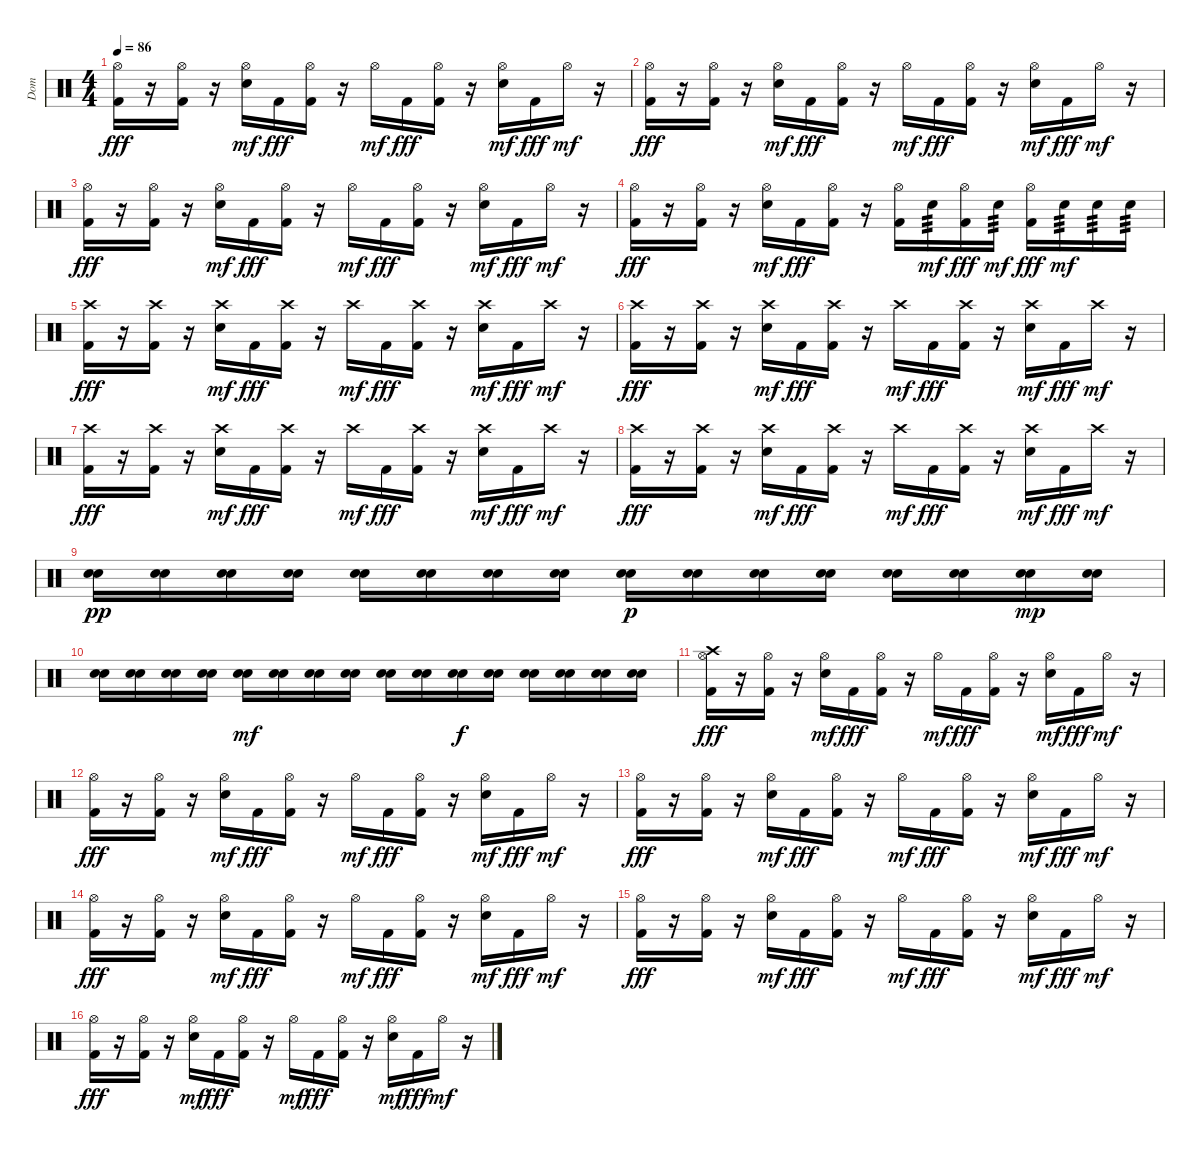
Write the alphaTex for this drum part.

\track ("Dom" "Dom") {instrument percussion}
\staff {score}
\articulation defaults
\ts (4 4)
\tempo 86
\clef neutral
\ks c
("Hi-Hat (open)" "Kick (hit) 2").16{dy fff} r.16 ("Hi-Hat (open)" "Kick (hit) 2").16 r.16 ("Hi-Hat (open)" "Electric Snare (hit)").16{dy mf} "Kick (hit) 2".16{dy fff} ("Hi-Hat (open)" "Kick (hit) 2").16 r.16 "Hi-Hat (open)".16{dy mf} "Kick (hit) 2".16{dy fff} ("Hi-Hat (open)" "Kick (hit) 2").16 r.16 ("Hi-Hat (open)" "Electric Snare (hit)").16{dy mf} "Kick (hit) 2".16{dy fff} "Hi-Hat (open)".16{dy mf} r.16 |
("Hi-Hat (open)" "Kick (hit) 2").16{dy fff} r.16 ("Hi-Hat (open)" "Kick (hit) 2").16 r.16 ("Hi-Hat (open)" "Electric Snare (hit)").16{dy mf} "Kick (hit) 2".16{dy fff} ("Hi-Hat (open)" "Kick (hit) 2").16 r.16 "Hi-Hat (open)".16{dy mf} "Kick (hit) 2".16{dy fff} ("Hi-Hat (open)" "Kick (hit) 2").16 r.16 ("Hi-Hat (open)" "Electric Snare (hit)").16{dy mf} "Kick (hit) 2".16{dy fff} "Hi-Hat (open)".16{dy mf} r.16 |
("Hi-Hat (open)" "Kick (hit) 2").16{dy fff} r.16 ("Hi-Hat (open)" "Kick (hit) 2").16 r.16 ("Hi-Hat (open)" "Electric Snare (hit)").16{dy mf} "Kick (hit) 2".16{dy fff} ("Hi-Hat (open)" "Kick (hit) 2").16 r.16 "Hi-Hat (open)".16{dy mf} "Kick (hit) 2".16{dy fff} ("Hi-Hat (open)" "Kick (hit) 2").16 r.16 ("Hi-Hat (open)" "Electric Snare (hit)").16{dy mf} "Kick (hit) 2".16{dy fff} "Hi-Hat (open)".16{dy mf} r.16 |
("Hi-Hat (open)" "Kick (hit) 2").16{dy fff} r.16 ("Hi-Hat (open)" "Kick (hit) 2").16 r.16 ("Hi-Hat (open)" "Electric Snare (hit)").16{dy mf} "Kick (hit) 2".16{dy fff} ("Hi-Hat (open)" "Kick (hit) 2").16 r.16 ("Hi-Hat (open)" "Kick (hit) 2").16 "Electric Snare (hit)".16{tp 3 dy mf} ("Hi-Hat (open)" "Kick (hit) 2").16{dy fff} "Electric Snare (hit)".16{tp 3 dy mf} ("Hi-Hat (open)" "Kick (hit) 2").16{dy fff} "Electric Snare (hit)".16{tp 3 dy mf} "Electric Snare (hit)".16{tp 3} "Electric Snare (hit)".16{tp 3} |
("Crash high (hit)" "Kick (hit) 2").16{dy fff} r.16 ("Crash high (hit)" "Kick (hit) 2").16 r.16 ("Crash high (hit)" "Electric Snare (hit)").16{dy mf} "Kick (hit) 2".16{dy fff} ("Crash high (hit)" "Kick (hit) 2").16 r.16 "Crash high (hit)".16{dy mf} "Kick (hit) 2".16{dy fff} ("Crash high (hit)" "Kick (hit) 2").16 r.16 ("Crash high (hit)" "Electric Snare (hit)").16{dy mf} "Kick (hit) 2".16{dy fff} "Crash high (hit)".16{dy mf} r.16 |
("Crash high (hit)" "Kick (hit) 2").16{dy fff} r.16 ("Crash high (hit)" "Kick (hit) 2").16 r.16 ("Crash high (hit)" "Electric Snare (hit)").16{dy mf} "Kick (hit) 2".16{dy fff} ("Crash high (hit)" "Kick (hit) 2").16 r.16 "Crash high (hit)".16{dy mf} "Kick (hit) 2".16{dy fff} ("Crash high (hit)" "Kick (hit) 2").16 r.16 ("Crash high (hit)" "Electric Snare (hit)").16{dy mf} "Kick (hit) 2".16{dy fff} "Crash high (hit)".16{dy mf} r.16 |
("Crash high (hit)" "Kick (hit) 2").16{dy fff} r.16 ("Crash high (hit)" "Kick (hit) 2").16 r.16 ("Crash high (hit)" "Electric Snare (hit)").16{dy mf} "Kick (hit) 2".16{dy fff} ("Crash high (hit)" "Kick (hit) 2").16 r.16 "Crash high (hit)".16{dy mf} "Kick (hit) 2".16{dy fff} ("Crash high (hit)" "Kick (hit) 2").16 r.16 ("Crash high (hit)" "Electric Snare (hit)").16{dy mf} "Kick (hit) 2".16{dy fff} "Crash high (hit)".16{dy mf} r.16 |
("Crash high (hit)" "Kick (hit) 2").16{dy fff} r.16 ("Crash high (hit)" "Kick (hit) 2").16 r.16 ("Crash high (hit)" "Electric Snare (hit)").16{dy mf} "Kick (hit) 2".16{dy fff} ("Crash high (hit)" "Kick (hit) 2").16 r.16 "Crash high (hit)".16{dy mf} "Kick (hit) 2".16{dy fff} ("Crash high (hit)" "Kick (hit) 2").16 r.16 ("Crash high (hit)" "Electric Snare (hit)").16{dy mf} "Kick (hit) 2".16{dy fff} "Crash high (hit)".16{dy mf} r.16 |
("Electric Snare (hit)" "Electric Snare (hit)").16{dy pp} ("Electric Snare (hit)" "Electric Snare (hit)").16 ("Electric Snare (hit)" "Electric Snare (hit)").16 ("Electric Snare (hit)" "Electric Snare (hit)").16 ("Electric Snare (hit)" "Electric Snare (hit)").16 ("Electric Snare (hit)" "Electric Snare (hit)").16 ("Electric Snare (hit)" "Electric Snare (hit)").16 ("Electric Snare (hit)" "Electric Snare (hit)").16 ("Electric Snare (hit)" "Electric Snare (hit)").16{dy p} ("Electric Snare (hit)" "Electric Snare (hit)").16 ("Electric Snare (hit)" "Electric Snare (hit)").16 ("Electric Snare (hit)" "Electric Snare (hit)").16 ("Electric Snare (hit)" "Electric Snare (hit)").16 ("Electric Snare (hit)" "Electric Snare (hit)").16 ("Electric Snare (hit)" "Electric Snare (hit)").16{dy mp} ("Electric Snare (hit)" "Electric Snare (hit)").16 |
("Electric Snare (hit)" "Electric Snare (hit)").16 ("Electric Snare (hit)" "Electric Snare (hit)").16 ("Electric Snare (hit)" "Electric Snare (hit)").16 ("Electric Snare (hit)" "Electric Snare (hit)").16 ("Electric Snare (hit)" "Electric Snare (hit)").16{dy mf} ("Electric Snare (hit)" "Electric Snare (hit)").16 ("Electric Snare (hit)" "Electric Snare (hit)").16 ("Electric Snare (hit)" "Electric Snare (hit)").16 ("Electric Snare (hit)" "Electric Snare (hit)").16 ("Electric Snare (hit)" "Electric Snare (hit)").16 ("Electric Snare (hit)" "Electric Snare (hit)").16{dy f} ("Electric Snare (hit)" "Electric Snare (hit)").16 ("Electric Snare (hit)" "Electric Snare (hit)").16 ("Electric Snare (hit)" "Electric Snare (hit)").16 ("Electric Snare (hit)" "Electric Snare (hit)").16 ("Electric Snare (hit)" "Electric Snare (hit)").16 |
("Crash high (hit)" "Hi-Hat (open)" "Kick (hit) 2").16{dy fff} r.16 ("Hi-Hat (open)" "Kick (hit) 2").16 r.16 ("Hi-Hat (open)" "Electric Snare (hit)").16{dy mf} "Kick (hit) 2".16{dy fff} ("Hi-Hat (open)" "Kick (hit) 2").16 r.16 "Hi-Hat (open)".16{dy mf} "Kick (hit) 2".16{dy fff} ("Hi-Hat (open)" "Kick (hit) 2").16 r.16 ("Hi-Hat (open)" "Electric Snare (hit)").16{dy mf} "Kick (hit) 2".16{dy fff} "Hi-Hat (open)".16{dy mf} r.16 |
("Hi-Hat (open)" "Kick (hit) 2").16{dy fff} r.16 ("Hi-Hat (open)" "Kick (hit) 2").16 r.16 ("Hi-Hat (open)" "Electric Snare (hit)").16{dy mf} "Kick (hit) 2".16{dy fff} ("Hi-Hat (open)" "Kick (hit) 2").16 r.16 "Hi-Hat (open)".16{dy mf} "Kick (hit) 2".16{dy fff} ("Hi-Hat (open)" "Kick (hit) 2").16 r.16 ("Hi-Hat (open)" "Electric Snare (hit)").16{dy mf} "Kick (hit) 2".16{dy fff} "Hi-Hat (open)".16{dy mf} r.16 |
("Hi-Hat (open)" "Kick (hit) 2").16{dy fff} r.16 ("Hi-Hat (open)" "Kick (hit) 2").16 r.16 ("Hi-Hat (open)" "Electric Snare (hit)").16{dy mf} "Kick (hit) 2".16{dy fff} ("Hi-Hat (open)" "Kick (hit) 2").16 r.16 "Hi-Hat (open)".16{dy mf} "Kick (hit) 2".16{dy fff} ("Hi-Hat (open)" "Kick (hit) 2").16 r.16 ("Hi-Hat (open)" "Electric Snare (hit)").16{dy mf} "Kick (hit) 2".16{dy fff} "Hi-Hat (open)".16{dy mf} r.16 |
("Hi-Hat (open)" "Kick (hit) 2").16{dy fff} r.16 ("Hi-Hat (open)" "Kick (hit) 2").16 r.16 ("Hi-Hat (open)" "Electric Snare (hit)").16{dy mf} "Kick (hit) 2".16{dy fff} ("Hi-Hat (open)" "Kick (hit) 2").16 r.16 "Hi-Hat (open)".16{dy mf} "Kick (hit) 2".16{dy fff} ("Hi-Hat (open)" "Kick (hit) 2").16 r.16 ("Hi-Hat (open)" "Electric Snare (hit)").16{dy mf} "Kick (hit) 2".16{dy fff} "Hi-Hat (open)".16{dy mf} r.16 |
("Hi-Hat (open)" "Kick (hit) 2").16{dy fff} r.16 ("Hi-Hat (open)" "Kick (hit) 2").16 r.16 ("Hi-Hat (open)" "Electric Snare (hit)").16{dy mf} "Kick (hit) 2".16{dy fff} ("Hi-Hat (open)" "Kick (hit) 2").16 r.16 "Hi-Hat (open)".16{dy mf} "Kick (hit) 2".16{dy fff} ("Hi-Hat (open)" "Kick (hit) 2").16 r.16 ("Hi-Hat (open)" "Electric Snare (hit)").16{dy mf} "Kick (hit) 2".16{dy fff} "Hi-Hat (open)".16{dy mf} r.16 |
("Hi-Hat (open)" "Kick (hit) 2").16{dy fff} r.16 ("Hi-Hat (open)" "Kick (hit) 2").16 r.16 ("Hi-Hat (open)" "Electric Snare (hit)").16{dy mf} "Kick (hit) 2".16{dy fff} ("Hi-Hat (open)" "Kick (hit) 2").16 r.16 "Hi-Hat (open)".16{dy mf} "Kick (hit) 2".16{dy fff} ("Hi-Hat (open)" "Kick (hit) 2").16 r.16 ("Hi-Hat (open)" "Electric Snare (hit)").16{dy mf} "Kick (hit) 2".16{dy fff} "Hi-Hat (open)".16{dy mf} r.16
